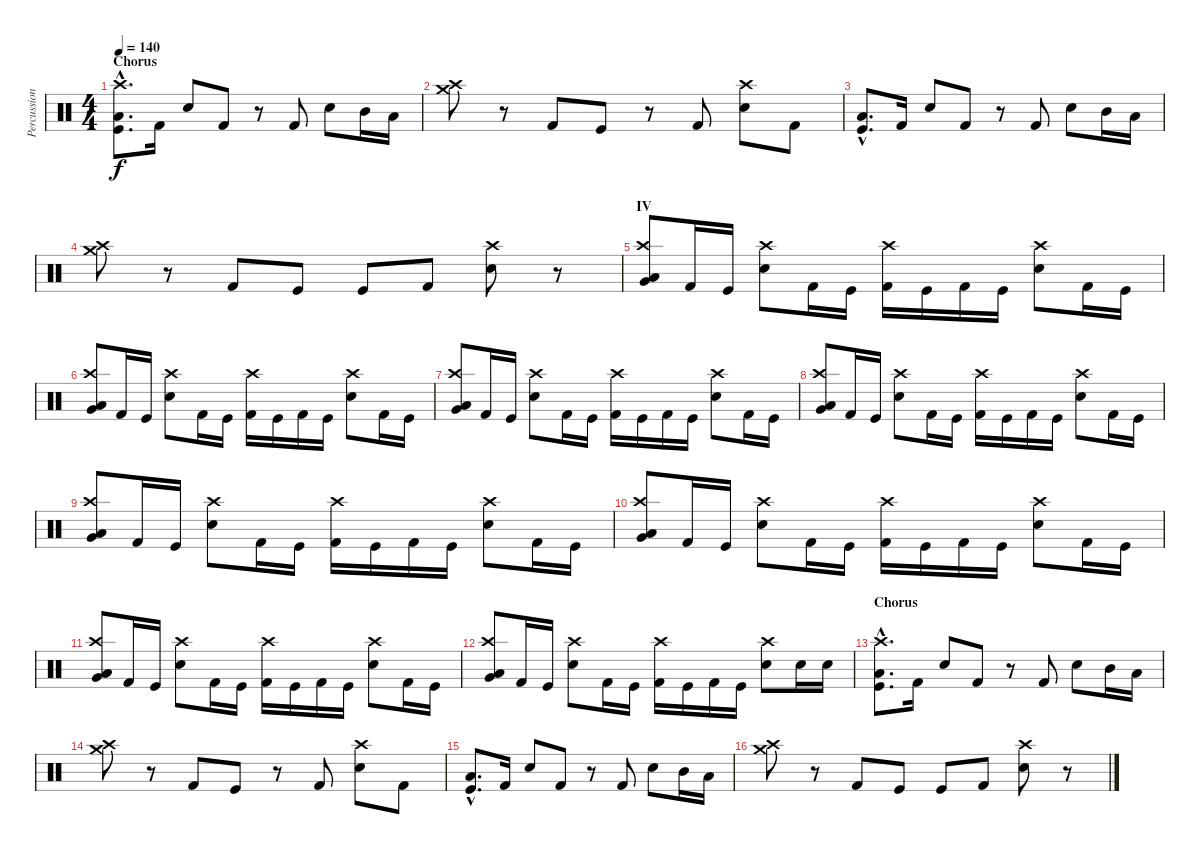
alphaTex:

\track ("Percussion" "Percussion") {instrument percussion}
\staff {score}
\articulation defaults
\ts (4 4)
\section ("" "Chorus")
\tempo 140
\clef neutral
\ks c
("Low Tom (hit)"{hac} "Kick (hit)"{hac} "Crash high (hit)"{hac}).8{d dy f} "Kick (hit) 2".16 "Electric Snare (hit)".8 "Kick (hit) 2".8 r.8 "Kick (hit) 2".8 "Electric Snare (hit)".8 "Mid Tom (hit)".16 "Low Tom (hit)".16 |
("Crash medium (hit)" "Crash high (hit)").8 r.8 "Kick (hit) 2".8 "Kick (hit)".8 r.8 "Kick (hit) 2".8 ("Electric Snare (hit)" "Crash high (hit)").8 "Kick (hit) 2".8 |
("Low Tom (hit)"{hac} "Kick (hit)"{hac}).8{d} "Kick (hit) 2".16 "Electric Snare (hit)".8 "Kick (hit) 2".8 r.8 "Kick (hit) 2".8 "Electric Snare (hit)".8 "Mid Tom (hit)".16 "Low Tom (hit)".16 |
("Crash medium (hit)" "Crash high (hit)").8 r.8 "Kick (hit) 2".8 "Kick (hit)".8 "Kick (hit)".8 "Kick (hit) 2".8 ("Electric Snare (hit)" "Crash high (hit)").8 r.8 |
\section ("" "IV")
("Very Low Tom (hit)" "Crash high (hit)" "Low Tom (hit)").8 "Kick (hit) 2".16 "Kick (hit)".16 ("Electric Snare (hit)" "Crash high (hit)").8 "Kick (hit) 2".16 "Kick (hit)".16 ("Kick (hit) 2" "Crash high (hit)").16 "Kick (hit)".16 "Kick (hit) 2".16 "Kick (hit)".16 ("Electric Snare (hit)" "Crash high (hit)").8 "Kick (hit) 2".16 "Kick (hit)".16 |
("Very Low Tom (hit)" "Crash high (hit)" "Low Tom (hit)").8 "Kick (hit) 2".16 "Kick (hit)".16 ("Electric Snare (hit)" "Crash high (hit)").8 "Kick (hit) 2".16 "Kick (hit)".16 ("Kick (hit) 2" "Crash high (hit)").16 "Kick (hit)".16 "Kick (hit) 2".16 "Kick (hit)".16 ("Electric Snare (hit)" "Crash high (hit)").8 "Kick (hit) 2".16 "Kick (hit)".16 |
("Very Low Tom (hit)" "Crash high (hit)" "Low Tom (hit)").8 "Kick (hit) 2".16 "Kick (hit)".16 ("Electric Snare (hit)" "Crash high (hit)").8 "Kick (hit) 2".16 "Kick (hit)".16 ("Kick (hit) 2" "Crash high (hit)").16 "Kick (hit)".16 "Kick (hit) 2".16 "Kick (hit)".16 ("Electric Snare (hit)" "Crash high (hit)").8 "Kick (hit) 2".16 "Kick (hit)".16 |
("Very Low Tom (hit)" "Crash high (hit)" "Low Tom (hit)").8 "Kick (hit) 2".16 "Kick (hit)".16 ("Electric Snare (hit)" "Crash high (hit)").8 "Kick (hit) 2".16 "Kick (hit)".16 ("Kick (hit) 2" "Crash high (hit)").16 "Kick (hit)".16 "Kick (hit) 2".16 "Kick (hit)".16 ("Electric Snare (hit)" "Crash high (hit)").8 "Kick (hit) 2".16 "Kick (hit)".16 |
("Very Low Tom (hit)" "Crash high (hit)" "Low Tom (hit)").8 "Kick (hit) 2".16 "Kick (hit)".16 ("Electric Snare (hit)" "Crash high (hit)").8 "Kick (hit) 2".16 "Kick (hit)".16 ("Kick (hit) 2" "Crash high (hit)").16 "Kick (hit)".16 "Kick (hit) 2".16 "Kick (hit)".16 ("Electric Snare (hit)" "Crash high (hit)").8 "Kick (hit) 2".16 "Kick (hit)".16 |
("Very Low Tom (hit)" "Crash high (hit)" "Low Tom (hit)").8 "Kick (hit) 2".16 "Kick (hit)".16 ("Electric Snare (hit)" "Crash high (hit)").8 "Kick (hit) 2".16 "Kick (hit)".16 ("Kick (hit) 2" "Crash high (hit)").16 "Kick (hit)".16 "Kick (hit) 2".16 "Kick (hit)".16 ("Electric Snare (hit)" "Crash high (hit)").8 "Kick (hit) 2".16 "Kick (hit)".16 |
("Very Low Tom (hit)" "Crash high (hit)" "Low Tom (hit)").8 "Kick (hit) 2".16 "Kick (hit)".16 ("Electric Snare (hit)" "Crash high (hit)").8 "Kick (hit) 2".16 "Kick (hit)".16 ("Kick (hit) 2" "Crash high (hit)").16 "Kick (hit)".16 "Kick (hit) 2".16 "Kick (hit)".16 ("Electric Snare (hit)" "Crash high (hit)").8 "Kick (hit) 2".16 "Kick (hit)".16 |
("Very Low Tom (hit)" "Crash high (hit)" "Low Tom (hit)").8 "Kick (hit) 2".16 "Kick (hit)".16 ("Electric Snare (hit)" "Crash high (hit)").8 "Kick (hit) 2".16 "Kick (hit)".16 ("Kick (hit) 2" "Crash high (hit)").16 "Kick (hit)".16 "Kick (hit) 2".16 "Kick (hit)".16 ("Electric Snare (hit)" "Crash high (hit)").8 "Snare (hit) 2".16 "Snare (hit) 2".16 |
\section ("" "Chorus")
("Low Tom (hit)"{hac} "Kick (hit)"{hac} "Crash high (hit)"{hac}).8{d} "Kick (hit) 2".16 "Electric Snare (hit)".8 "Kick (hit) 2".8 r.8 "Kick (hit) 2".8 "Electric Snare (hit)".8 "Mid Tom (hit)".16 "Low Tom (hit)".16 |
("Crash medium (hit)" "Crash high (hit)").8 r.8 "Kick (hit) 2".8 "Kick (hit)".8 r.8 "Kick (hit) 2".8 ("Electric Snare (hit)" "Crash high (hit)").8 "Kick (hit) 2".8 |
("Low Tom (hit)"{hac} "Kick (hit)"{hac}).8{d} "Kick (hit) 2".16 "Electric Snare (hit)".8 "Kick (hit) 2".8 r.8 "Kick (hit) 2".8 "Electric Snare (hit)".8 "Mid Tom (hit)".16 "Low Tom (hit)".16 |
("Crash medium (hit)" "Crash high (hit)").8 r.8 "Kick (hit) 2".8 "Kick (hit)".8 "Kick (hit)".8 "Kick (hit) 2".8 ("Electric Snare (hit)" "Crash high (hit)").8 r.8
